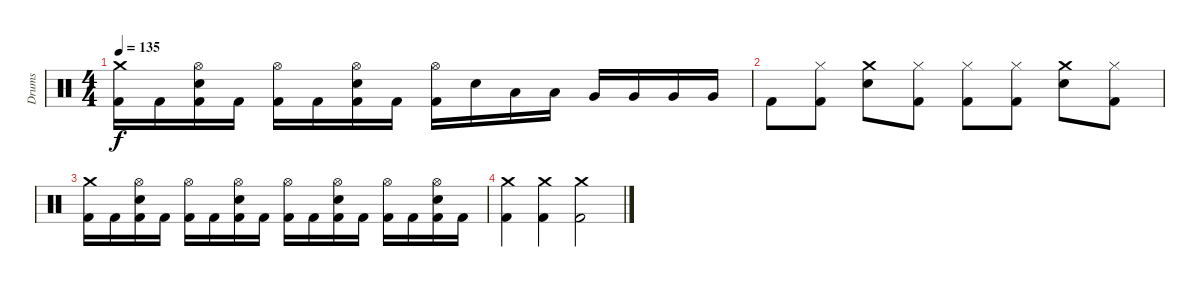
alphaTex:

\track ("Drums" "Drums") {instrument percussion}
\staff {score}
\articulation defaults
\ts (4 4)
\tempo 135
\clef neutral
\ks c
("Crash medium (hit)" "Kick (hit) 2").16{dy f} "Kick (hit) 2".16 ("Hi-Hat (open)" "Electric Snare (hit)" "Kick (hit) 2").16 "Kick (hit) 2".16 ("Hi-Hat (open)" "Kick (hit) 2").16 "Kick (hit) 2".16 ("Hi-Hat (open)" "Electric Snare (hit)" "Kick (hit) 2").16 "Kick (hit) 2".16 ("Hi-Hat (open)" "Kick (hit) 2").16 "Electric Snare (hit)".16 "Low Tom (hit)".16 "Low Tom (hit)".16 "Very Low Tom (hit)".16 "Very Low Tom (hit)".16 "Very Low Tom (hit)".16 "Very Low Tom (hit)".16 |
"Kick (hit) 2".8 ("Hi-Hat (closed)" "Kick (hit) 2").8 ("Crash medium (hit)" "Electric Snare (hit)").8 ("Hi-Hat (closed)" "Kick (hit) 2").8 ("Hi-Hat (closed)" "Kick (hit) 2").8 ("Hi-Hat (closed)" "Kick (hit) 2").8 ("Crash medium (hit)" "Electric Snare (hit)").8 ("Hi-Hat (closed)" "Kick (hit) 2").8 |
("Crash medium (hit)" "Kick (hit) 2").16 "Kick (hit) 2".16 ("Hi-Hat (open)" "Electric Snare (hit)" "Kick (hit) 2").16 "Kick (hit) 2".16 ("Hi-Hat (open)" "Kick (hit) 2").16 "Kick (hit) 2".16 ("Hi-Hat (open)" "Electric Snare (hit)" "Kick (hit) 2").16 "Kick (hit) 2".16 ("Hi-Hat (open)" "Kick (hit) 2").16 "Kick (hit) 2".16 ("Hi-Hat (open)" "Electric Snare (hit)" "Kick (hit) 2").16 "Kick (hit) 2".16 ("Hi-Hat (open)" "Kick (hit) 2").16 "Kick (hit) 2".16 ("Hi-Hat (open)" "Electric Snare (hit)" "Kick (hit) 2").16 "Kick (hit) 2".16 |
("Crash medium (hit)" "Kick (hit) 2").4 ("Crash medium (hit)" "Kick (hit) 2").4 ("Crash medium (hit)" "Kick (hit) 2").2{volume 0}
